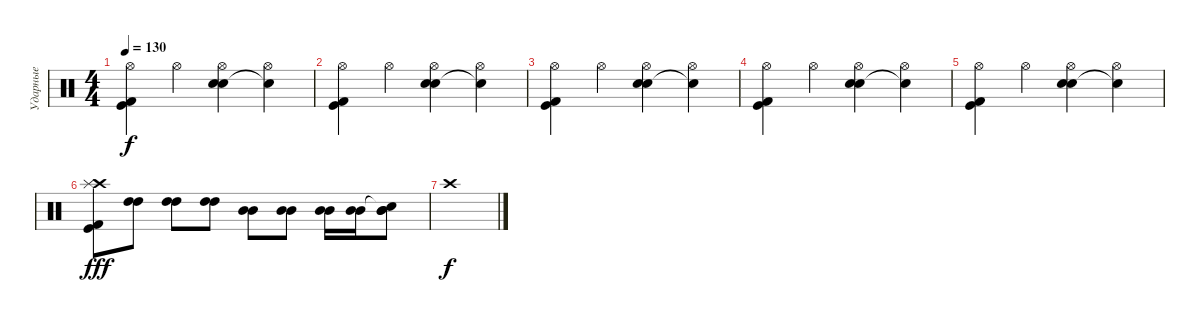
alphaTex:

\track ("Ударные" "Ударные") {instrument percussion}
\staff {score}
\articulation defaults
\ts (4 4)
\tempo 130
\clef neutral
\ks c
("Hi-Hat (open)" "Kick (hit)" "Kick (hit) 2").4{dy f} "Hi-Hat (open)".4 ("Hi-Hat (open)" "Electric Snare (hit)" "Snare (hit) 2").4 ("Hi-Hat (open)" "Snare (hit)"{t}).4 |
("Hi-Hat (open)" "Kick (hit)" "Kick (hit) 2").4 "Hi-Hat (open)".4 ("Hi-Hat (open)" "Electric Snare (hit)" "Snare (hit) 2").4 ("Hi-Hat (open)" "Snare (hit)"{t}).4 |
("Hi-Hat (open)" "Kick (hit)" "Kick (hit) 2").4 "Hi-Hat (open)".4 ("Hi-Hat (open)" "Electric Snare (hit)" "Snare (hit) 2").4 ("Hi-Hat (open)" "Snare (hit)"{t}).4 |
("Hi-Hat (open)" "Kick (hit)" "Kick (hit) 2").4 "Hi-Hat (open)".4 ("Hi-Hat (open)" "Electric Snare (hit)" "Snare (hit) 2").4 ("Hi-Hat (open)" "Snare (hit)"{t}).4 |
("Hi-Hat (open)" "Kick (hit)" "Kick (hit) 2").4 "Hi-Hat (open)".4 ("Hi-Hat (open)" "Electric Snare (hit)" "Snare (hit) 2").4 ("Hi-Hat (open)" "Snare (hit)"{t}).4 |
("Crash high (hit)" "Splash (hit)" "Kick (hit)" "Kick (hit) 2").8{dy fff} ("High Tom (hit)" "High Tom (hit)").8 ("High Tom (hit)" "High Tom (hit)").8 ("High Tom (hit)" "High Tom (hit)").8 ("Mid Tom (hit)" "Mid Tom (hit)").8 ("Mid Tom (hit)" "Mid Tom (hit)").8 ("Mid Tom (hit)" "Mid Tom (hit)").16 ("Mid Tom (hit)" "Mid Tom (hit)").16 ("Snare (hit)"{t} "Mid Tom (hit)" "Mid Tom (hit)").8 |
"Crash high (hit)".1{dy f}
